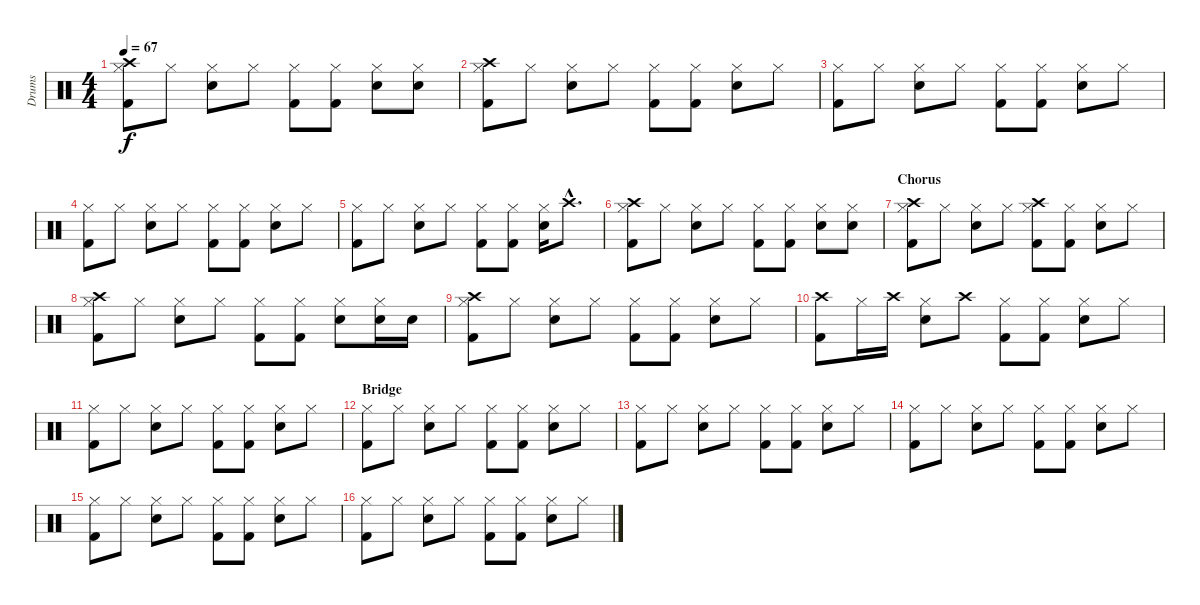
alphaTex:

\track ("Drums" "Drums") {instrument percussion}
\staff {score}
\articulation defaults
\ts (4 4)
\tempo 67
\clef neutral
\ks c
("Crash high (hit)" "Hi-Hat (closed)" "Kick (hit) 2").8{dy f} "Hi-Hat (closed)".8 ("Hi-Hat (closed)" "Snare (hit) 2").8 "Hi-Hat (closed)".8 ("Hi-Hat (closed)" "Kick (hit) 2").8 ("Hi-Hat (closed)" "Kick (hit) 2").8 ("Hi-Hat (closed)" "Snare (hit) 2").8 ("Hi-Hat (closed)" "Snare (hit) 2").8 |
("Hi-Hat (closed)" "Kick (hit) 2" "Crash high (hit)").8 "Hi-Hat (closed)".8 ("Hi-Hat (closed)" "Snare (hit) 2").8 "Hi-Hat (closed)".8 ("Hi-Hat (closed)" "Kick (hit) 2").8 ("Hi-Hat (closed)" "Kick (hit) 2").8 ("Hi-Hat (closed)" "Snare (hit) 2").8 "Hi-Hat (closed)".8 |
("Hi-Hat (closed)" "Kick (hit) 2").8 "Hi-Hat (closed)".8 ("Hi-Hat (closed)" "Snare (hit) 2").8 "Hi-Hat (closed)".8 ("Hi-Hat (closed)" "Kick (hit) 2").8 ("Hi-Hat (closed)" "Kick (hit) 2").8 ("Hi-Hat (closed)" "Snare (hit) 2").8 "Hi-Hat (closed)".8 |
("Hi-Hat (closed)" "Kick (hit) 2").8 "Hi-Hat (closed)".8 ("Hi-Hat (closed)" "Snare (hit) 2").8 "Hi-Hat (closed)".8 ("Hi-Hat (closed)" "Kick (hit) 2").8 ("Hi-Hat (closed)" "Kick (hit) 2").8 ("Hi-Hat (closed)" "Snare (hit) 2").8 "Hi-Hat (closed)".8 |
("Hi-Hat (closed)" "Kick (hit) 2").8 "Hi-Hat (closed)".8 ("Hi-Hat (closed)" "Snare (hit) 2").8 "Hi-Hat (closed)".8 ("Hi-Hat (closed)" "Kick (hit) 2").8 ("Hi-Hat (closed)" "Kick (hit) 2").8 ("Hi-Hat (closed)" "Snare (hit) 2").16 "Crash high (hit)"{hac}.8{d} |
("Crash high (hit)" "Hi-Hat (closed)" "Kick (hit) 2").8 "Hi-Hat (closed)".8 ("Hi-Hat (closed)" "Snare (hit) 2").8 "Hi-Hat (closed)".8 ("Hi-Hat (closed)" "Kick (hit) 2").8 ("Hi-Hat (closed)" "Kick (hit) 2").8 ("Hi-Hat (closed)" "Snare (hit) 2").8 ("Hi-Hat (closed)" "Snare (hit) 2").8 |
\section ("" "Chorus")
("Hi-Hat (closed)" "Kick (hit) 2" "Crash high (hit)").8 "Hi-Hat (closed)".8 ("Hi-Hat (closed)" "Snare (hit) 2").8 "Hi-Hat (closed)".8 ("Hi-Hat (closed)" "Kick (hit) 2" "Crash high (hit)").8 ("Hi-Hat (closed)" "Kick (hit) 2").8 ("Hi-Hat (closed)" "Snare (hit) 2").8 "Hi-Hat (closed)".8 |
("Hi-Hat (closed)" "Kick (hit) 2" "Crash high (hit)").8 "Hi-Hat (closed)".8 ("Hi-Hat (closed)" "Snare (hit) 2").8 "Hi-Hat (closed)".8 ("Hi-Hat (closed)" "Kick (hit) 2").8 ("Hi-Hat (closed)" "Kick (hit) 2").8 ("Hi-Hat (closed)" "Snare (hit) 2").8 ("Hi-Hat (closed)" "Snare (hit) 2").16 "Snare (hit) 2".16 |
("Hi-Hat (closed)" "Kick (hit) 2" "Crash high (hit)").8 "Hi-Hat (closed)".8 ("Hi-Hat (closed)" "Snare (hit) 2").8 "Hi-Hat (closed)".8 ("Hi-Hat (closed)" "Kick (hit) 2").8 ("Hi-Hat (closed)" "Kick (hit) 2").8 ("Hi-Hat (closed)" "Snare (hit) 2").8 "Hi-Hat (closed)".8 |
("Crash high (hit)" "Kick (hit) 2").8 "Hi-Hat (closed)".16 "Crash high (hit)".16 ("Hi-Hat (closed)" "Snare (hit) 2").8 "Crash high (hit)".8 ("Hi-Hat (closed)" "Kick (hit) 2").8 ("Hi-Hat (closed)" "Kick (hit) 2").8 ("Hi-Hat (closed)" "Snare (hit) 2").8 "Hi-Hat (closed)".8 |
("Hi-Hat (closed)" "Kick (hit) 2").8 "Hi-Hat (closed)".8 ("Hi-Hat (closed)" "Snare (hit) 2").8 "Hi-Hat (closed)".8 ("Hi-Hat (closed)" "Kick (hit) 2").8 ("Hi-Hat (closed)" "Kick (hit) 2").8 ("Hi-Hat (closed)" "Snare (hit) 2").8 "Hi-Hat (closed)".8 |
\section ("" "Bridge")
("Hi-Hat (closed)" "Kick (hit) 2").8 "Hi-Hat (closed)".8 ("Hi-Hat (closed)" "Snare (hit) 2").8 "Hi-Hat (closed)".8 ("Hi-Hat (closed)" "Kick (hit) 2").8 ("Hi-Hat (closed)" "Kick (hit) 2").8 ("Hi-Hat (closed)" "Snare (hit) 2").8 "Hi-Hat (closed)".8 |
("Hi-Hat (closed)" "Kick (hit) 2").8 "Hi-Hat (closed)".8 ("Hi-Hat (closed)" "Snare (hit) 2").8 "Hi-Hat (closed)".8 ("Hi-Hat (closed)" "Kick (hit) 2").8 ("Hi-Hat (closed)" "Kick (hit) 2").8 ("Hi-Hat (closed)" "Snare (hit) 2").8 "Hi-Hat (closed)".8 |
("Hi-Hat (closed)" "Kick (hit) 2").8 "Hi-Hat (closed)".8 ("Hi-Hat (closed)" "Snare (hit) 2").8 "Hi-Hat (closed)".8 ("Hi-Hat (closed)" "Kick (hit) 2").8 ("Hi-Hat (closed)" "Kick (hit) 2").8 ("Hi-Hat (closed)" "Snare (hit) 2").8 "Hi-Hat (closed)".8 |
("Hi-Hat (closed)" "Kick (hit) 2").8 "Hi-Hat (closed)".8 ("Hi-Hat (closed)" "Snare (hit) 2").8 "Hi-Hat (closed)".8 ("Hi-Hat (closed)" "Kick (hit) 2").8 ("Hi-Hat (closed)" "Kick (hit) 2").8 ("Hi-Hat (closed)" "Snare (hit) 2").8 "Hi-Hat (closed)".8 |
("Hi-Hat (closed)" "Kick (hit) 2").8 "Hi-Hat (closed)".8 ("Hi-Hat (closed)" "Snare (hit) 2").8 "Hi-Hat (closed)".8 ("Hi-Hat (closed)" "Kick (hit) 2").8 ("Hi-Hat (closed)" "Kick (hit) 2").8 ("Hi-Hat (closed)" "Snare (hit) 2").8 "Hi-Hat (closed)".8
